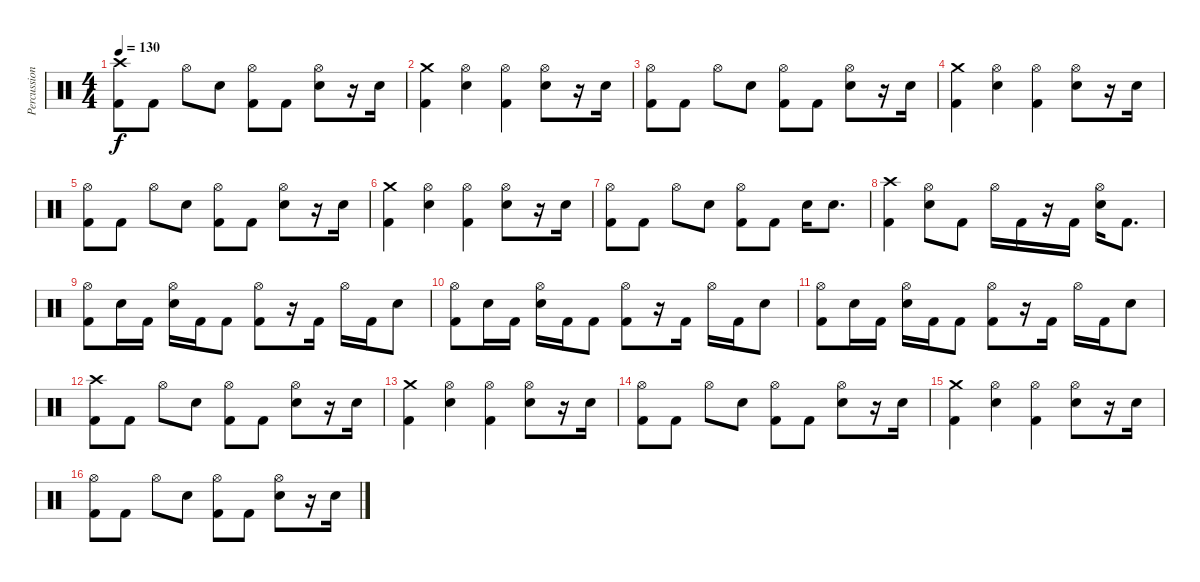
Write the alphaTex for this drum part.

\track ("Percussion" "Percussion") {instrument percussion}
\staff {score}
\articulation defaults
\ts (4 4)
\tempo 130
\clef neutral
\ks c
("Crash high (hit)" "Kick (hit) 2").8{dy f} "Kick (hit) 2".8 "Hi-Hat (open)".8 "Electric Snare (hit)".8 ("Hi-Hat (open)" "Kick (hit) 2").8 "Kick (hit) 2".8 ("Hi-Hat (open)" "Electric Snare (hit)").8 r.16 "Electric Snare (hit)".16 |
("Crash medium (hit)" "Kick (hit) 2").4 ("Hi-Hat (open)" "Electric Snare (hit)").4 ("Hi-Hat (open)" "Kick (hit) 2").4 ("Hi-Hat (open)" "Electric Snare (hit)").8 r.16 "Electric Snare (hit)".16 |
("Hi-Hat (open)" "Kick (hit) 2").8 "Kick (hit) 2".8 "Hi-Hat (open)".8 "Electric Snare (hit)".8 ("Hi-Hat (open)" "Kick (hit) 2").8 "Kick (hit) 2".8 ("Hi-Hat (open)" "Electric Snare (hit)").8 r.16 "Electric Snare (hit)".16 |
("Crash medium (hit)" "Kick (hit) 2").4 ("Hi-Hat (open)" "Electric Snare (hit)").4 ("Hi-Hat (open)" "Kick (hit) 2").4 ("Hi-Hat (open)" "Electric Snare (hit)").8 r.16 "Electric Snare (hit)".16 |
("Hi-Hat (open)" "Kick (hit) 2").8 "Kick (hit) 2".8 "Hi-Hat (open)".8 "Electric Snare (hit)".8 ("Hi-Hat (open)" "Kick (hit) 2").8 "Kick (hit) 2".8 ("Hi-Hat (open)" "Electric Snare (hit)").8 r.16 "Electric Snare (hit)".16 |
("Crash medium (hit)" "Kick (hit) 2").4 ("Hi-Hat (open)" "Electric Snare (hit)").4 ("Hi-Hat (open)" "Kick (hit) 2").4 ("Hi-Hat (open)" "Electric Snare (hit)").8 r.16 "Electric Snare (hit)".16 |
("Hi-Hat (open)" "Kick (hit) 2").8 "Kick (hit) 2".8 "Hi-Hat (open)".8 "Electric Snare (hit)".8 ("Hi-Hat (open)" "Kick (hit) 2").8 "Kick (hit) 2".8 "Electric Snare (hit)".16 "Electric Snare (hit)".8{d} |
("Crash high (hit)" "Kick (hit) 2").4 ("Hi-Hat (open)" "Electric Snare (hit)").8 "Kick (hit) 2".8 "Hi-Hat (open)".16 "Kick (hit) 2".16 r.16 "Kick (hit) 2".16 ("Hi-Hat (open)" "Electric Snare (hit)").16 "Kick (hit) 2".8{d} |
("Hi-Hat (open)" "Kick (hit) 2").8 "Electric Snare (hit)".16 "Kick (hit) 2".16 ("Hi-Hat (open)" "Electric Snare (hit)").16 "Kick (hit) 2".16 "Kick (hit) 2".8 ("Hi-Hat (open)" "Kick (hit) 2").8 r.16 "Kick (hit) 2".16 "Hi-Hat (open)".16 "Kick (hit) 2".16 "Electric Snare (hit)".8 |
("Hi-Hat (open)" "Kick (hit) 2").8 "Electric Snare (hit)".16 "Kick (hit) 2".16 ("Hi-Hat (open)" "Electric Snare (hit)").16 "Kick (hit) 2".16 "Kick (hit) 2".8 ("Hi-Hat (open)" "Kick (hit) 2").8 r.16 "Kick (hit) 2".16 "Hi-Hat (open)".16 "Kick (hit) 2".16 "Electric Snare (hit)".8 |
("Hi-Hat (open)" "Kick (hit) 2").8 "Electric Snare (hit)".16 "Kick (hit) 2".16 ("Hi-Hat (open)" "Electric Snare (hit)").16 "Kick (hit) 2".16 "Kick (hit) 2".8 ("Hi-Hat (open)" "Kick (hit) 2").8 r.16 "Kick (hit) 2".16 "Hi-Hat (open)".16 "Kick (hit) 2".16 "Electric Snare (hit)".8 |
("Crash high (hit)" "Kick (hit) 2").8 "Kick (hit) 2".8 "Hi-Hat (open)".8 "Electric Snare (hit)".8 ("Hi-Hat (open)" "Kick (hit) 2").8 "Kick (hit) 2".8 ("Hi-Hat (open)" "Electric Snare (hit)").8 r.16 "Electric Snare (hit)".16 |
("Crash medium (hit)" "Kick (hit) 2").4 ("Hi-Hat (open)" "Electric Snare (hit)").4 ("Hi-Hat (open)" "Kick (hit) 2").4 ("Hi-Hat (open)" "Electric Snare (hit)").8 r.16 "Electric Snare (hit)".16 |
("Hi-Hat (open)" "Kick (hit) 2").8 "Kick (hit) 2".8 "Hi-Hat (open)".8 "Electric Snare (hit)".8 ("Hi-Hat (open)" "Kick (hit) 2").8 "Kick (hit) 2".8 ("Hi-Hat (open)" "Electric Snare (hit)").8 r.16 "Electric Snare (hit)".16 |
("Crash medium (hit)" "Kick (hit) 2").4 ("Hi-Hat (open)" "Electric Snare (hit)").4 ("Hi-Hat (open)" "Kick (hit) 2").4 ("Hi-Hat (open)" "Electric Snare (hit)").8 r.16 "Electric Snare (hit)".16 |
("Hi-Hat (open)" "Kick (hit) 2").8 "Kick (hit) 2".8 "Hi-Hat (open)".8 "Electric Snare (hit)".8 ("Hi-Hat (open)" "Kick (hit) 2").8 "Kick (hit) 2".8 ("Hi-Hat (open)" "Electric Snare (hit)").8 r.16 "Electric Snare (hit)".16
